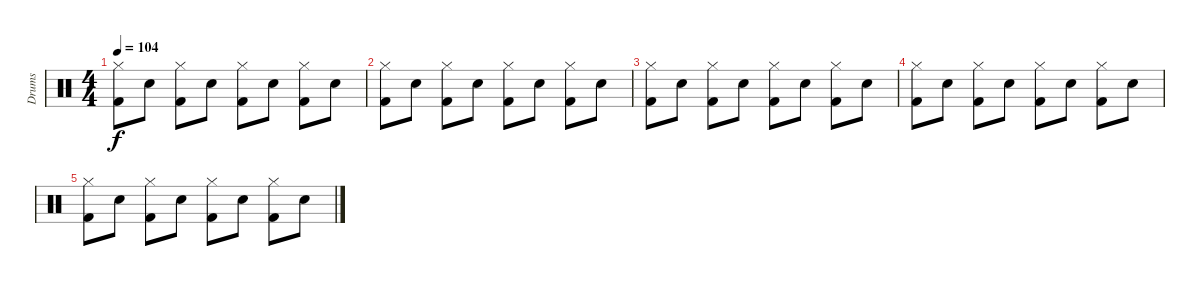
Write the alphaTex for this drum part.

\track ("Drums" "Drums") {instrument percussion}
\staff {score}
\articulation defaults
\ts (4 4)
\tempo 104
\clef neutral
\ks c
("Hi-Hat (closed)" "Kick (hit) 2").8{dy f} "Snare (hit) 2".8 ("Hi-Hat (closed)" "Kick (hit) 2").8 "Snare (hit) 2".8 ("Hi-Hat (closed)" "Kick (hit) 2").8 "Snare (hit) 2".8 ("Hi-Hat (closed)" "Kick (hit) 2").8 "Snare (hit) 2".8 |
("Hi-Hat (closed)" "Kick (hit) 2").8 "Snare (hit) 2".8 ("Hi-Hat (closed)" "Kick (hit) 2").8 "Snare (hit) 2".8 ("Hi-Hat (closed)" "Kick (hit) 2").8 "Snare (hit) 2".8 ("Hi-Hat (closed)" "Kick (hit) 2").8 "Snare (hit) 2".8 |
("Hi-Hat (closed)" "Kick (hit) 2").8 "Snare (hit) 2".8 ("Hi-Hat (closed)" "Kick (hit) 2").8 "Snare (hit) 2".8 ("Hi-Hat (closed)" "Kick (hit) 2").8 "Snare (hit) 2".8 ("Hi-Hat (closed)" "Kick (hit) 2").8 "Snare (hit) 2".8 |
("Hi-Hat (closed)" "Kick (hit) 2").8 "Snare (hit) 2".8 ("Hi-Hat (closed)" "Kick (hit) 2").8 "Snare (hit) 2".8 ("Hi-Hat (closed)" "Kick (hit) 2").8 "Snare (hit) 2".8 ("Hi-Hat (closed)" "Kick (hit) 2").8 "Snare (hit) 2".8 |
("Hi-Hat (closed)" "Kick (hit) 2").8 "Snare (hit) 2".8 ("Hi-Hat (closed)" "Kick (hit) 2").8 "Snare (hit) 2".8 ("Hi-Hat (closed)" "Kick (hit) 2").8 "Snare (hit) 2".8 ("Hi-Hat (closed)" "Kick (hit) 2").8 "Snare (hit) 2".8
